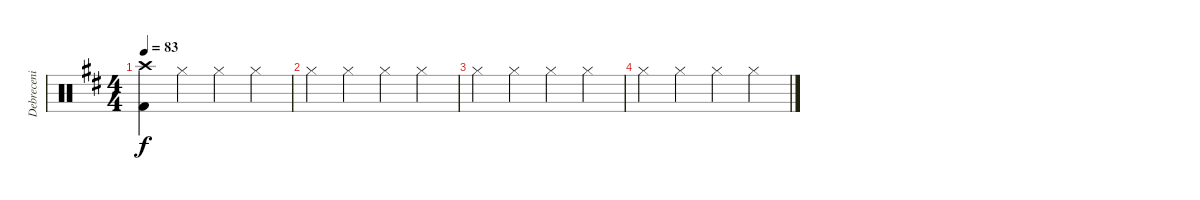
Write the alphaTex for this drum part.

\track ("Debreceni Ferenc \"Ciki\" Dob" "Debreceni ") {instrument percussion}
\staff {score}
\articulation defaults
\ts (4 4)
\tempo 83
\clef neutral
\ks d
("Crash high (hit)" "Kick (hit) 2").4{dy f} "Hi-Hat (closed)".4 "Hi-Hat (closed)".4 "Hi-Hat (closed)".4 |
"Hi-Hat (closed)".4 "Hi-Hat (closed)".4 "Hi-Hat (closed)".4 "Hi-Hat (closed)".4 |
"Hi-Hat (closed)".4 "Hi-Hat (closed)".4 "Hi-Hat (closed)".4 "Hi-Hat (closed)".4 |
"Hi-Hat (closed)".4 "Hi-Hat (closed)".4 "Hi-Hat (closed)".4 "Hi-Hat (closed)".4
